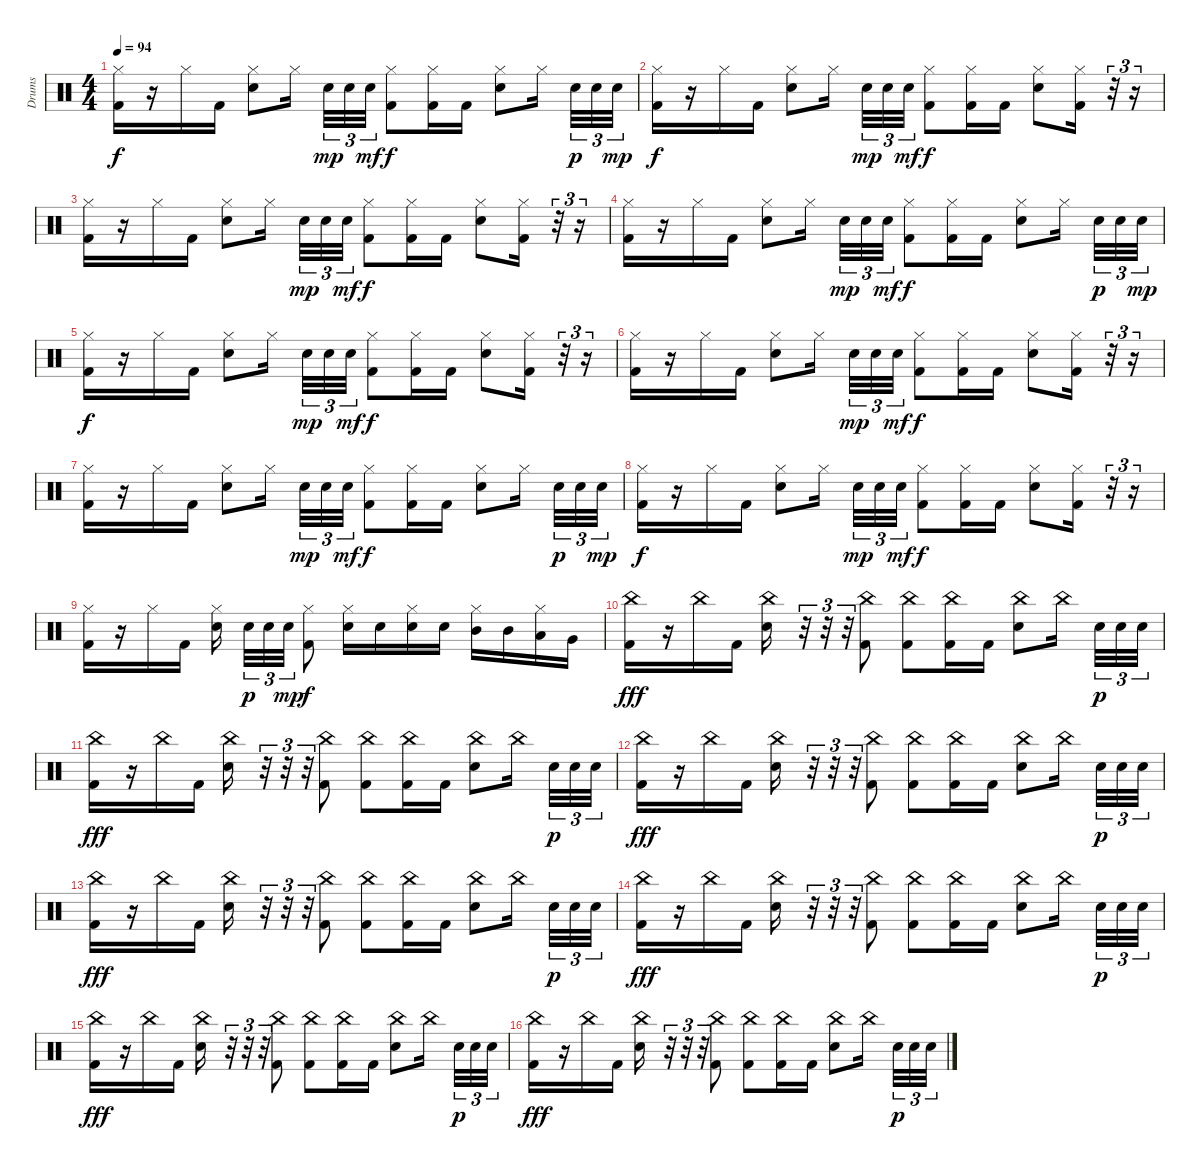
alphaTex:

\track ("Drums" "Drums") {instrument percussion}
\staff {score}
\articulation defaults
\ts (4 4)
\tempo 94
\clef neutral
\ks c
("Hi-Hat (closed)" "Kick (hit) 2").16{dy f} r.16 "Hi-Hat (closed)".16 "Kick (hit) 2".16 ("Hi-Hat (closed)" "Electric Snare (hit)").8 "Hi-Hat (closed)".16 "Electric Snare (hit)".32{tu (3 2) dy mp} "Electric Snare (hit)".32{tu (3 2)} "Electric Snare (hit)".32{tu (3 2) dy mf} ("Hi-Hat (closed)" "Kick (hit) 2").8{dy f} ("Hi-Hat (closed)" "Kick (hit) 2").16 "Kick (hit) 2".16 ("Hi-Hat (closed)" "Electric Snare (hit)").8 "Hi-Hat (closed)".16 "Electric Snare (hit)".32{tu (3 2) dy p} "Electric Snare (hit)".32{tu (3 2)} "Electric Snare (hit)".32{tu (3 2) dy mp} |
("Hi-Hat (closed)" "Kick (hit) 2").16{dy f} r.16 "Hi-Hat (closed)".16 "Kick (hit) 2".16 ("Hi-Hat (closed)" "Electric Snare (hit)").8 "Hi-Hat (closed)".16 "Electric Snare (hit)".32{tu (3 2) dy mp} "Electric Snare (hit)".32{tu (3 2)} "Electric Snare (hit)".32{tu (3 2) dy mf} ("Hi-Hat (closed)" "Kick (hit) 2").8{dy f} ("Hi-Hat (closed)" "Kick (hit) 2").16 "Kick (hit) 2".16 ("Hi-Hat (closed)" "Electric Snare (hit)").8 ("Hi-Hat (closed)" "Kick (hit) 2").16 r.32{tu (3 2)} r.16{tu (3 2)} |
("Hi-Hat (closed)" "Kick (hit) 2").16 r.16 "Hi-Hat (closed)".16 "Kick (hit) 2".16 ("Hi-Hat (closed)" "Electric Snare (hit)").8 "Hi-Hat (closed)".16 "Electric Snare (hit)".32{tu (3 2) dy mp} "Electric Snare (hit)".32{tu (3 2)} "Electric Snare (hit)".32{tu (3 2) dy mf} ("Hi-Hat (closed)" "Kick (hit) 2").8{dy f} ("Hi-Hat (closed)" "Kick (hit) 2").16 "Kick (hit) 2".16 ("Hi-Hat (closed)" "Electric Snare (hit)").8 ("Hi-Hat (closed)" "Kick (hit) 2").16 r.32{tu (3 2)} r.16{tu (3 2)} |
("Hi-Hat (closed)" "Kick (hit) 2").16 r.16 "Hi-Hat (closed)".16 "Kick (hit) 2".16 ("Hi-Hat (closed)" "Electric Snare (hit)").8 "Hi-Hat (closed)".16 "Electric Snare (hit)".32{tu (3 2) dy mp} "Electric Snare (hit)".32{tu (3 2)} "Electric Snare (hit)".32{tu (3 2) dy mf} ("Hi-Hat (closed)" "Kick (hit) 2").8{dy f} ("Hi-Hat (closed)" "Kick (hit) 2").16 "Kick (hit) 2".16 ("Hi-Hat (closed)" "Electric Snare (hit)").8 "Hi-Hat (closed)".16 "Electric Snare (hit)".32{tu (3 2) dy p} "Electric Snare (hit)".32{tu (3 2)} "Electric Snare (hit)".32{tu (3 2) dy mp} |
("Hi-Hat (closed)" "Kick (hit) 2").16{dy f} r.16 "Hi-Hat (closed)".16 "Kick (hit) 2".16 ("Hi-Hat (closed)" "Electric Snare (hit)").8 "Hi-Hat (closed)".16 "Electric Snare (hit)".32{tu (3 2) dy mp} "Electric Snare (hit)".32{tu (3 2)} "Electric Snare (hit)".32{tu (3 2) dy mf} ("Hi-Hat (closed)" "Kick (hit) 2").8{dy f} ("Hi-Hat (closed)" "Kick (hit) 2").16 "Kick (hit) 2".16 ("Hi-Hat (closed)" "Electric Snare (hit)").8 ("Hi-Hat (closed)" "Kick (hit) 2").16 r.32{tu (3 2)} r.16{tu (3 2)} |
("Hi-Hat (closed)" "Kick (hit) 2").16 r.16 "Hi-Hat (closed)".16 "Kick (hit) 2".16 ("Hi-Hat (closed)" "Electric Snare (hit)").8 "Hi-Hat (closed)".16 "Electric Snare (hit)".32{tu (3 2) dy mp} "Electric Snare (hit)".32{tu (3 2)} "Electric Snare (hit)".32{tu (3 2) dy mf} ("Hi-Hat (closed)" "Kick (hit) 2").8{dy f} ("Hi-Hat (closed)" "Kick (hit) 2").16 "Kick (hit) 2".16 ("Hi-Hat (closed)" "Electric Snare (hit)").8 ("Hi-Hat (closed)" "Kick (hit) 2").16 r.32{tu (3 2)} r.16{tu (3 2)} |
("Hi-Hat (closed)" "Kick (hit) 2").16 r.16 "Hi-Hat (closed)".16 "Kick (hit) 2".16 ("Hi-Hat (closed)" "Electric Snare (hit)").8 "Hi-Hat (closed)".16 "Electric Snare (hit)".32{tu (3 2) dy mp} "Electric Snare (hit)".32{tu (3 2)} "Electric Snare (hit)".32{tu (3 2) dy mf} ("Hi-Hat (closed)" "Kick (hit) 2").8{dy f} ("Hi-Hat (closed)" "Kick (hit) 2").16 "Kick (hit) 2".16 ("Hi-Hat (closed)" "Electric Snare (hit)").8 "Hi-Hat (closed)".16 "Electric Snare (hit)".32{tu (3 2) dy p} "Electric Snare (hit)".32{tu (3 2)} "Electric Snare (hit)".32{tu (3 2) dy mp} |
("Hi-Hat (closed)" "Kick (hit) 2").16{dy f} r.16 "Hi-Hat (closed)".16 "Kick (hit) 2".16 ("Hi-Hat (closed)" "Electric Snare (hit)").8 "Hi-Hat (closed)".16 "Electric Snare (hit)".32{tu (3 2) dy mp} "Electric Snare (hit)".32{tu (3 2)} "Electric Snare (hit)".32{tu (3 2) dy mf} ("Hi-Hat (closed)" "Kick (hit) 2").8{dy f} ("Hi-Hat (closed)" "Kick (hit) 2").16 "Kick (hit) 2".16 ("Hi-Hat (closed)" "Electric Snare (hit)").8 ("Hi-Hat (closed)" "Kick (hit) 2").16 r.32{tu (3 2)} r.16{tu (3 2)} |
("Hi-Hat (closed)" "Kick (hit) 2").16 r.16 "Hi-Hat (closed)".16 "Kick (hit) 2".16 ("Hi-Hat (closed)" "Electric Snare (hit)").16 "Electric Snare (hit)".32{tu (3 2) dy p} "Electric Snare (hit)".32{tu (3 2)} "Electric Snare (hit)".32{tu (3 2) dy mp} ("Hi-Hat (closed)" "Kick (hit) 2").8{dy f} ("Hi-Hat (closed)" "Electric Snare (hit)").16 "Electric Snare (hit)".16 ("Hi-Hat (closed)" "Electric Snare (hit)").16 "Electric Snare (hit)".16 ("Hi-Hat (closed)" "Mid Tom (hit)").16 "Mid Tom (hit)".16 ("Hi-Hat (closed)" "Low Tom (hit)").16 "Very Low Tom (hit)".16 |
("China (hit)" "Kick (hit) 2").16{dy fff} r.16 "China (hit)".16 "Kick (hit) 2".16 ("China (hit)" "Electric Snare (hit)").16 r.32{tu (3 2)} r.32{tu (3 2)} r.32{tu (3 2)} ("China (hit)" "Kick (hit) 2").8 ("China (hit)" "Kick (hit) 2").8 ("China (hit)" "Kick (hit) 2").16 "Kick (hit) 2".16 ("China (hit)" "Electric Snare (hit)").8 "China (hit)".16 "Electric Snare (hit)".32{tu (3 2) dy p} "Electric Snare (hit)".32{tu (3 2)} "Electric Snare (hit)".32{tu (3 2)} |
("China (hit)" "Kick (hit) 2").16{dy fff} r.16 "China (hit)".16 "Kick (hit) 2".16 ("China (hit)" "Electric Snare (hit)").16 r.32{tu (3 2)} r.32{tu (3 2)} r.32{tu (3 2)} ("China (hit)" "Kick (hit) 2").8 ("China (hit)" "Kick (hit) 2").8 ("China (hit)" "Kick (hit) 2").16 "Kick (hit) 2".16 ("China (hit)" "Electric Snare (hit)").8 "China (hit)".16 "Electric Snare (hit)".32{tu (3 2) dy p} "Electric Snare (hit)".32{tu (3 2)} "Electric Snare (hit)".32{tu (3 2)} |
("China (hit)" "Kick (hit) 2").16{dy fff} r.16 "China (hit)".16 "Kick (hit) 2".16 ("China (hit)" "Electric Snare (hit)").16 r.32{tu (3 2)} r.32{tu (3 2)} r.32{tu (3 2)} ("China (hit)" "Kick (hit) 2").8 ("China (hit)" "Kick (hit) 2").8 ("China (hit)" "Kick (hit) 2").16 "Kick (hit) 2".16 ("China (hit)" "Electric Snare (hit)").8 "China (hit)".16 "Electric Snare (hit)".32{tu (3 2) dy p} "Electric Snare (hit)".32{tu (3 2)} "Electric Snare (hit)".32{tu (3 2)} |
("China (hit)" "Kick (hit) 2").16{dy fff} r.16 "China (hit)".16 "Kick (hit) 2".16 ("China (hit)" "Electric Snare (hit)").16 r.32{tu (3 2)} r.32{tu (3 2)} r.32{tu (3 2)} ("China (hit)" "Kick (hit) 2").8 ("China (hit)" "Kick (hit) 2").8 ("China (hit)" "Kick (hit) 2").16 "Kick (hit) 2".16 ("China (hit)" "Electric Snare (hit)").8 "China (hit)".16 "Electric Snare (hit)".32{tu (3 2) dy p} "Electric Snare (hit)".32{tu (3 2)} "Electric Snare (hit)".32{tu (3 2)} |
("China (hit)" "Kick (hit) 2").16{dy fff} r.16 "China (hit)".16 "Kick (hit) 2".16 ("China (hit)" "Electric Snare (hit)").16 r.32{tu (3 2)} r.32{tu (3 2)} r.32{tu (3 2)} ("China (hit)" "Kick (hit) 2").8 ("China (hit)" "Kick (hit) 2").8 ("China (hit)" "Kick (hit) 2").16 "Kick (hit) 2".16 ("China (hit)" "Electric Snare (hit)").8 "China (hit)".16 "Electric Snare (hit)".32{tu (3 2) dy p} "Electric Snare (hit)".32{tu (3 2)} "Electric Snare (hit)".32{tu (3 2)} |
("China (hit)" "Kick (hit) 2").16{dy fff} r.16 "China (hit)".16 "Kick (hit) 2".16 ("China (hit)" "Electric Snare (hit)").16 r.32{tu (3 2)} r.32{tu (3 2)} r.32{tu (3 2)} ("China (hit)" "Kick (hit) 2").8 ("China (hit)" "Kick (hit) 2").8 ("China (hit)" "Kick (hit) 2").16 "Kick (hit) 2".16 ("China (hit)" "Electric Snare (hit)").8 "China (hit)".16 "Electric Snare (hit)".32{tu (3 2) dy p} "Electric Snare (hit)".32{tu (3 2)} "Electric Snare (hit)".32{tu (3 2)} |
("China (hit)" "Kick (hit) 2").16{dy fff} r.16 "China (hit)".16 "Kick (hit) 2".16 ("China (hit)" "Electric Snare (hit)").16 r.32{tu (3 2)} r.32{tu (3 2)} r.32{tu (3 2)} ("China (hit)" "Kick (hit) 2").8 ("China (hit)" "Kick (hit) 2").8 ("China (hit)" "Kick (hit) 2").16 "Kick (hit) 2".16 ("China (hit)" "Electric Snare (hit)").8 "China (hit)".16 "Electric Snare (hit)".32{tu (3 2) dy p} "Electric Snare (hit)".32{tu (3 2)} "Electric Snare (hit)".32{tu (3 2)}
